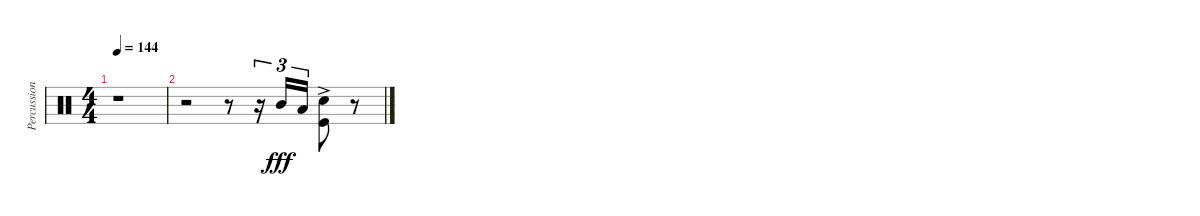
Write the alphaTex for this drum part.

\track ("Percussions" "Percussion") {instrument percussion}
\staff {score}
\articulation defaults
\ts (4 4)
\tempo 144
\clef neutral
\ks c
r.1{dy fff} |
r.2 r.8 r.16{tu (3 2)} "Mid Tom (hit)".16{tu (3 2)} "Low Tom (hit)".16{tu (3 2)} ("Snare (hit) 2"{ac} "Kick (hit)").8{beam Down} r.8
